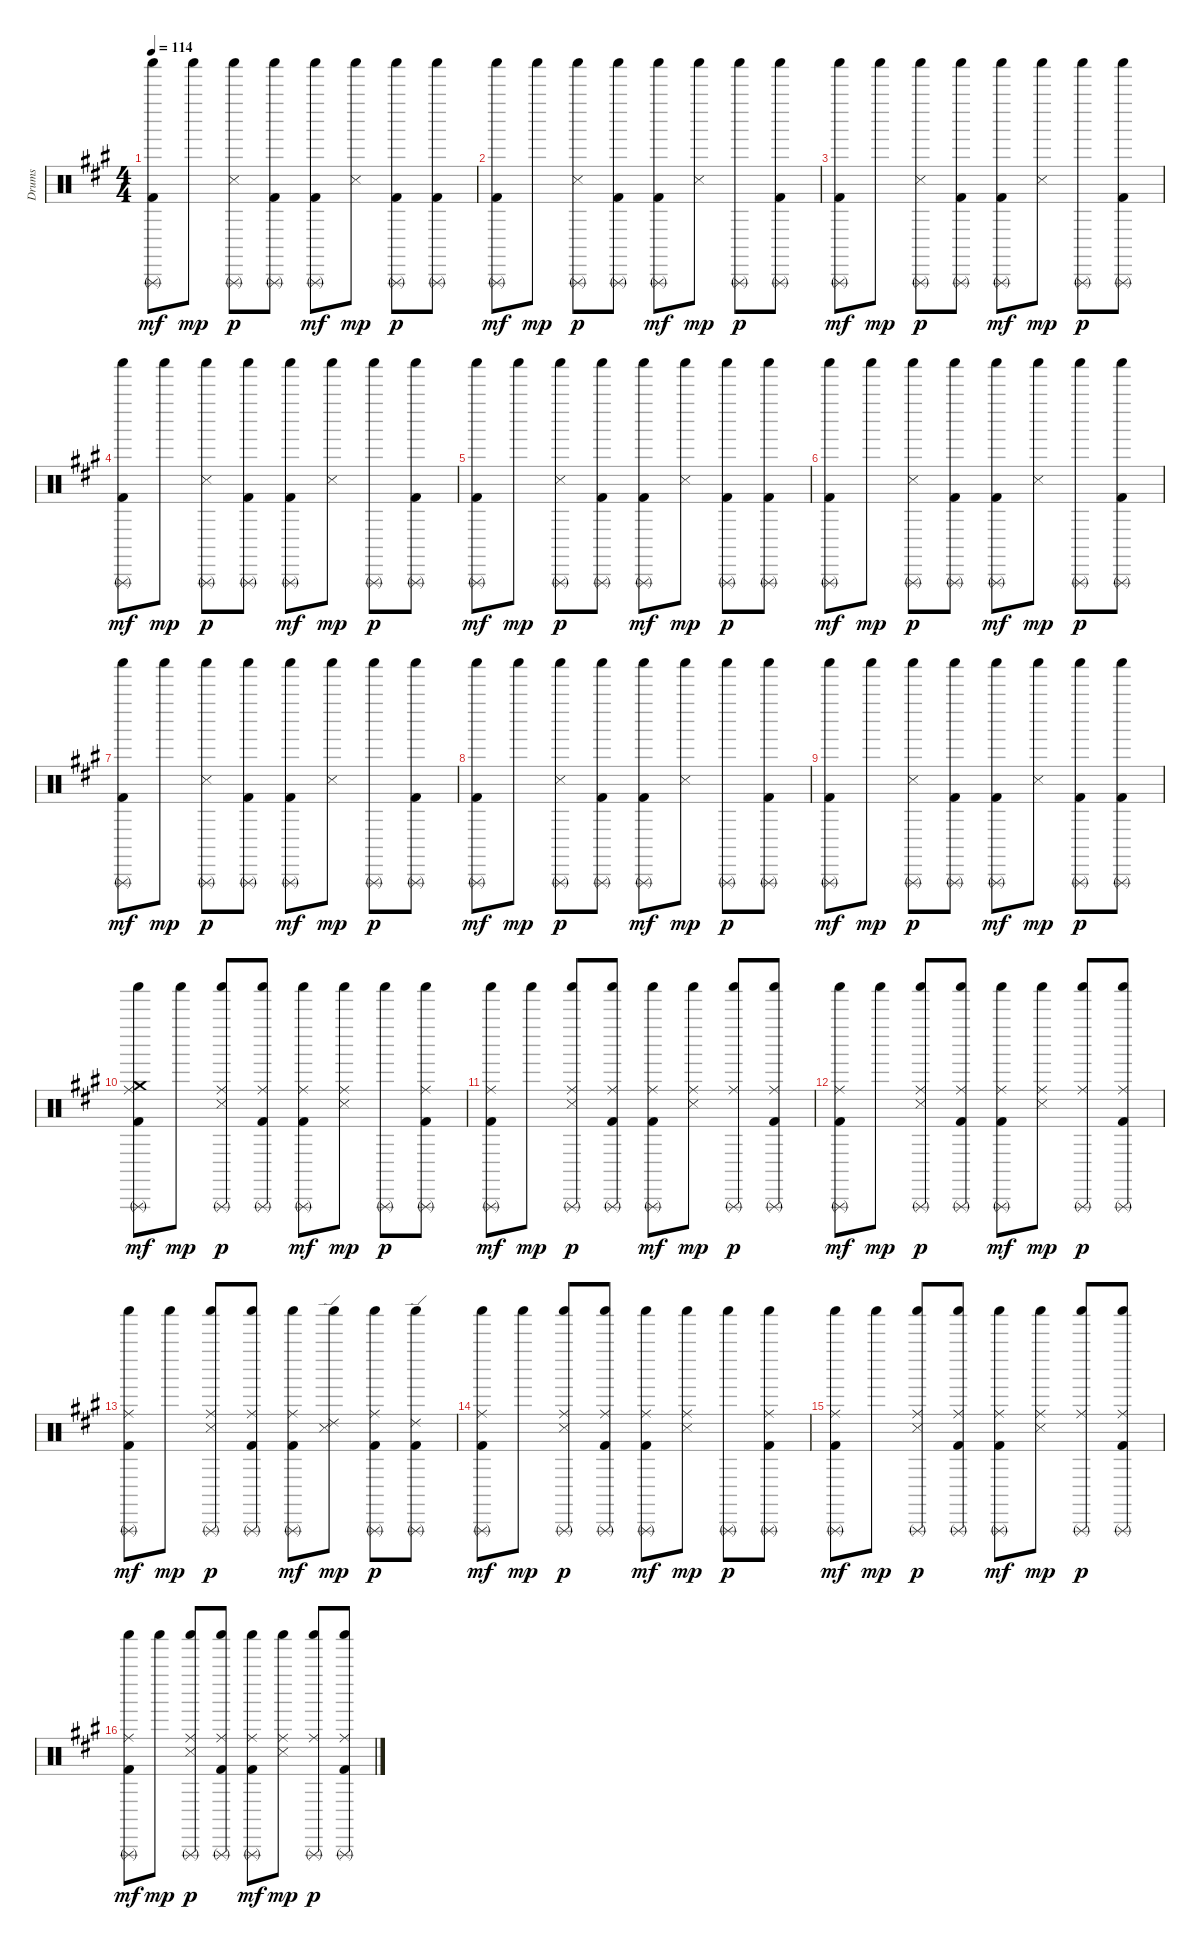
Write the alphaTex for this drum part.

\track ("Drums" "Drums") {instrument percussion}
\staff {score}
\articulation defaults
\ts (4 4)
\tempo 114
\clef neutral
\ks a
("Kick (hit) 2" "Triangle (rnute)" "Shaker (hit)").8{dy mf} "Shaker (hit)".8{dy mp} ("Snare (side stick) 3" "Triangle (rnute)" "Shaker (hit)").8{dy p} ("Kick (hit) 2" "Triangle (rnute)" "Shaker (hit)").8 ("Kick (hit) 2" "Triangle (rnute)" "Shaker (hit)").8{dy mf} ("Snare (side stick) 3" "Shaker (hit)").8{dy mp} ("Kick (hit) 2" "Triangle (rnute)" "Shaker (hit)").8{dy p} ("Kick (hit) 2" "Triangle (rnute)" "Shaker (hit)").8 |
("Kick (hit) 2" "Triangle (rnute)" "Shaker (hit)").8{dy mf} "Shaker (hit)".8{dy mp} ("Snare (side stick) 3" "Triangle (rnute)" "Shaker (hit)").8{dy p} ("Kick (hit) 2" "Triangle (rnute)" "Shaker (hit)").8 ("Kick (hit) 2" "Triangle (rnute)" "Shaker (hit)").8{dy mf} ("Snare (side stick) 3" "Shaker (hit)").8{dy mp} ("Triangle (rnute)" "Shaker (hit)").8{dy p} ("Kick (hit) 2" "Triangle (rnute)" "Shaker (hit)").8 |
("Kick (hit) 2" "Triangle (rnute)" "Shaker (hit)").8{dy mf} "Shaker (hit)".8{dy mp} ("Snare (side stick) 3" "Triangle (rnute)" "Shaker (hit)").8{dy p} ("Kick (hit) 2" "Triangle (rnute)" "Shaker (hit)").8 ("Kick (hit) 2" "Triangle (rnute)" "Shaker (hit)").8{dy mf} ("Snare (side stick) 3" "Shaker (hit)").8{dy mp} ("Triangle (rnute)" "Shaker (hit)").8{dy p} ("Kick (hit) 2" "Triangle (rnute)" "Shaker (hit)").8 |
("Kick (hit) 2" "Triangle (rnute)" "Shaker (hit)").8{dy mf} "Shaker (hit)".8{dy mp} ("Snare (side stick) 3" "Triangle (rnute)" "Shaker (hit)").8{dy p} ("Kick (hit) 2" "Triangle (rnute)" "Shaker (hit)").8 ("Kick (hit) 2" "Triangle (rnute)" "Shaker (hit)").8{dy mf} ("Snare (side stick) 3" "Shaker (hit)").8{dy mp} ("Triangle (rnute)" "Shaker (hit)").8{dy p} ("Kick (hit) 2" "Triangle (rnute)" "Shaker (hit)").8 |
("Kick (hit) 2" "Triangle (rnute)" "Shaker (hit)").8{dy mf} "Shaker (hit)".8{dy mp} ("Snare (side stick) 3" "Triangle (rnute)" "Shaker (hit)").8{dy p} ("Kick (hit) 2" "Triangle (rnute)" "Shaker (hit)").8 ("Kick (hit) 2" "Triangle (rnute)" "Shaker (hit)").8{dy mf} ("Snare (side stick) 3" "Shaker (hit)").8{dy mp} ("Kick (hit) 2" "Triangle (rnute)" "Shaker (hit)").8{dy p} ("Kick (hit) 2" "Triangle (rnute)" "Shaker (hit)").8 |
("Kick (hit) 2" "Triangle (rnute)" "Shaker (hit)").8{dy mf} "Shaker (hit)".8{dy mp} ("Snare (side stick) 3" "Triangle (rnute)" "Shaker (hit)").8{dy p} ("Kick (hit) 2" "Triangle (rnute)" "Shaker (hit)").8 ("Kick (hit) 2" "Triangle (rnute)" "Shaker (hit)").8{dy mf} ("Snare (side stick) 3" "Shaker (hit)").8{dy mp} ("Triangle (rnute)" "Shaker (hit)").8{dy p} ("Kick (hit) 2" "Triangle (rnute)" "Shaker (hit)").8 |
("Kick (hit) 2" "Triangle (rnute)" "Shaker (hit)").8{dy mf} "Shaker (hit)".8{dy mp} ("Snare (side stick) 3" "Triangle (rnute)" "Shaker (hit)").8{dy p} ("Kick (hit) 2" "Triangle (rnute)" "Shaker (hit)").8 ("Kick (hit) 2" "Triangle (rnute)" "Shaker (hit)").8{dy mf} ("Snare (side stick) 3" "Shaker (hit)").8{dy mp} ("Triangle (rnute)" "Shaker (hit)").8{dy p} ("Kick (hit) 2" "Triangle (rnute)" "Shaker (hit)").8 |
("Kick (hit) 2" "Triangle (rnute)" "Shaker (hit)").8{dy mf} "Shaker (hit)".8{dy mp} ("Snare (side stick) 3" "Triangle (rnute)" "Shaker (hit)").8{dy p} ("Kick (hit) 2" "Triangle (rnute)" "Shaker (hit)").8 ("Kick (hit) 2" "Triangle (rnute)" "Shaker (hit)").8{dy mf} ("Snare (side stick) 3" "Shaker (hit)").8{dy mp} ("Triangle (rnute)" "Shaker (hit)").8{dy p} ("Kick (hit) 2" "Triangle (rnute)" "Shaker (hit)").8 |
("Kick (hit) 2" "Triangle (rnute)" "Shaker (hit)").8{dy mf} "Shaker (hit)".8{dy mp} ("Snare (side stick) 3" "Triangle (rnute)" "Shaker (hit)").8{dy p} ("Kick (hit) 2" "Triangle (rnute)" "Shaker (hit)").8 ("Kick (hit) 2" "Triangle (rnute)" "Shaker (hit)").8{dy mf} ("Snare (side stick) 3" "Shaker (hit)").8{dy mp} ("Kick (hit) 2" "Triangle (rnute)" "Shaker (hit)").8{dy p} ("Kick (hit) 2" "Triangle (rnute)" "Shaker (hit)").8 |
("Kick (hit) 2" "Ride (middle)" "Crash medium (hit)" "Triangle (rnute)" "Shaker (hit)").8{dy mf} "Shaker (hit)".8{dy mp} ("Snare (side stick) 3" "Ride (middle)" "Triangle (rnute)" "Shaker (hit)").8{dy p} ("Kick (hit) 2" "Ride (middle)" "Triangle (rnute)" "Shaker (hit)").8 ("Kick (hit) 2" "Ride (middle)" "Triangle (rnute)" "Shaker (hit)").8{dy mf} ("Snare (side stick) 3" "Ride (middle)" "Shaker (hit)").8{dy mp} ("Triangle (rnute)" "Shaker (hit)").8{dy p} ("Kick (hit) 2" "Ride (middle)" "Triangle (rnute)" "Shaker (hit)").8 |
("Kick (hit) 2" "Ride (middle)" "Triangle (rnute)" "Shaker (hit)").8{dy mf} "Shaker (hit)".8{dy mp} ("Snare (side stick) 3" "Ride (middle)" "Triangle (rnute)" "Shaker (hit)").8{dy p} ("Kick (hit) 2" "Ride (middle)" "Triangle (rnute)" "Shaker (hit)").8 ("Kick (hit) 2" "Ride (middle)" "Triangle (rnute)" "Shaker (hit)").8{dy mf} ("Snare (side stick) 3" "Ride (middle)" "Shaker (hit)").8{dy mp} ("Ride (middle)" "Triangle (rnute)" "Shaker (hit)").8{dy p} ("Kick (hit) 2" "Ride (middle)" "Triangle (rnute)" "Shaker (hit)").8 |
("Kick (hit) 2" "Ride (middle)" "Triangle (rnute)" "Shaker (hit)").8{dy mf} "Shaker (hit)".8{dy mp} ("Snare (side stick) 3" "Ride (middle)" "Triangle (rnute)" "Shaker (hit)").8{dy p} ("Kick (hit) 2" "Ride (middle)" "Triangle (rnute)" "Shaker (hit)").8 ("Kick (hit) 2" "Ride (middle)" "Triangle (rnute)" "Shaker (hit)").8{dy mf} ("Snare (side stick) 3" "Ride (middle)" "Shaker (hit)").8{dy mp} ("Ride (middle)" "Triangle (rnute)" "Shaker (hit)").8{dy p} ("Kick (hit) 2" "Ride (middle)" "Triangle (rnute)" "Shaker (hit)").8 |
("Kick (hit) 2" "Ride (middle)" "Triangle (rnute)" "Shaker (hit)").8{dy mf} "Shaker (hit)".8{dy mp} ("Snare (side stick) 3" "Ride (middle)" "Triangle (rnute)" "Shaker (hit)").8{dy p} ("Kick (hit) 2" "Ride (middle)" "Triangle (rnute)" "Shaker (hit)").8 ("Kick (hit) 2" "Ride (middle)" "Triangle (rnute)" "Shaker (hit)").8{dy mf} ("Snare (side stick) 3" "Ride (edge) 2" "Shaker (hit)").8{dy mp} ("Kick (hit) 2" "Ride (middle)" "Triangle (rnute)" "Shaker (hit)").8{dy p} ("Kick (hit) 2" "Ride (edge) 2" "Triangle (rnute)" "Shaker (hit)").8 |
("Kick (hit) 2" "Ride (middle)" "Triangle (rnute)" "Shaker (hit)").8{dy mf} "Shaker (hit)".8{dy mp} ("Snare (side stick) 3" "Ride (middle)" "Triangle (rnute)" "Shaker (hit)").8{dy p} ("Kick (hit) 2" "Ride (middle)" "Triangle (rnute)" "Shaker (hit)").8 ("Kick (hit) 2" "Ride (middle)" "Triangle (rnute)" "Shaker (hit)").8{dy mf} ("Snare (side stick) 3" "Ride (middle)" "Shaker (hit)").8{dy mp} ("Triangle (rnute)" "Shaker (hit)").8{dy p} ("Kick (hit) 2" "Ride (middle)" "Triangle (rnute)" "Shaker (hit)").8 |
("Kick (hit) 2" "Ride (middle)" "Triangle (rnute)" "Shaker (hit)").8{dy mf} "Shaker (hit)".8{dy mp} ("Snare (side stick) 3" "Ride (middle)" "Triangle (rnute)" "Shaker (hit)").8{dy p} ("Kick (hit) 2" "Ride (middle)" "Triangle (rnute)" "Shaker (hit)").8 ("Kick (hit) 2" "Ride (middle)" "Triangle (rnute)" "Shaker (hit)").8{dy mf} ("Snare (side stick) 3" "Ride (middle)" "Shaker (hit)").8{dy mp} ("Ride (middle)" "Triangle (rnute)" "Shaker (hit)").8{dy p} ("Kick (hit) 2" "Ride (middle)" "Triangle (rnute)" "Shaker (hit)").8 |
("Kick (hit) 2" "Ride (middle)" "Triangle (rnute)" "Shaker (hit)").8{dy mf} "Shaker (hit)".8{dy mp} ("Snare (side stick) 3" "Ride (middle)" "Triangle (rnute)" "Shaker (hit)").8{dy p} ("Kick (hit) 2" "Ride (middle)" "Triangle (rnute)" "Shaker (hit)").8 ("Kick (hit) 2" "Ride (middle)" "Triangle (rnute)" "Shaker (hit)").8{dy mf} ("Snare (side stick) 3" "Ride (middle)" "Shaker (hit)").8{dy mp} ("Ride (middle)" "Triangle (rnute)" "Shaker (hit)").8{dy p} ("Kick (hit) 2" "Ride (middle)" "Triangle (rnute)" "Shaker (hit)").8
